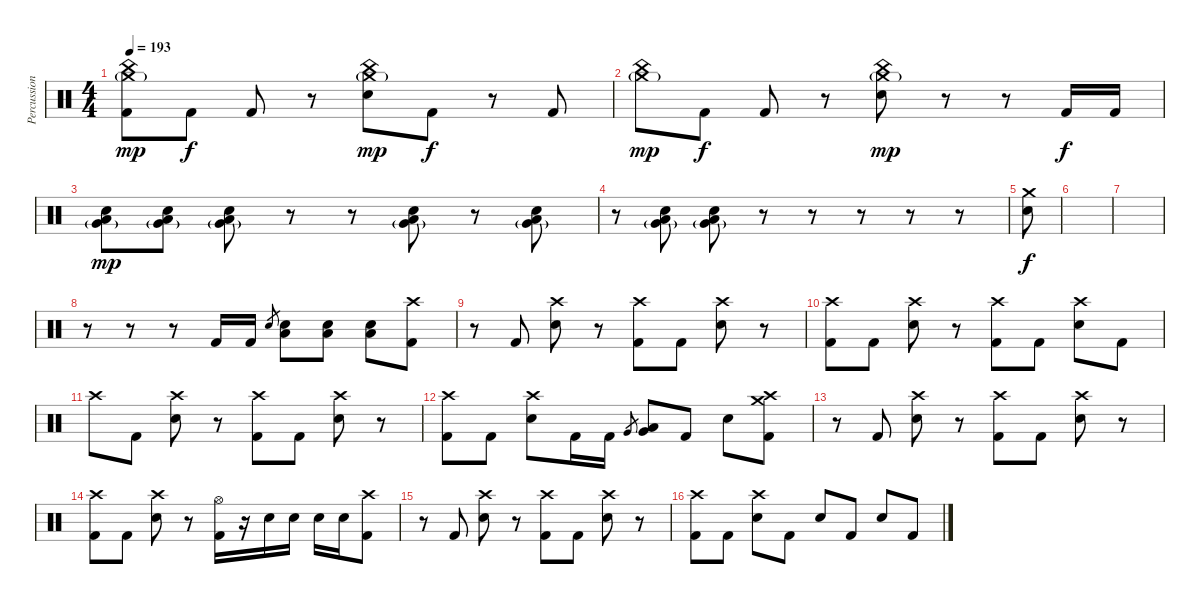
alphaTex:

\track ("Percussion" "Percussion") {instrument percussion}
\staff {score}
\articulation defaults
\ts (4 4)
\tempo 193
\clef neutral
\ks c
("Crash medium (hit)"{g} "China (hit)" "Kick (hit) 2").8{dy mp} "Kick (hit) 2".8{dy f} "Kick (hit) 2".8 r.8 ("Crash medium (hit)"{g} "China (hit)" "Snare (hit) 2").8{dy mp} "Kick (hit) 2".8{dy f} r.8 "Kick (hit) 2".8 |
("Crash medium (hit)"{g} "China (hit)").8{dy mp} "Kick (hit) 2".8{dy f} "Kick (hit) 2".8 r.8 ("Crash medium (hit)"{g} "China (hit)" "Snare (hit) 2").8{dy mp} r.8 r.8 "Kick (hit) 2".16{dy f} "Kick (hit) 2".16 |
("Very Low Tom (hit)"{g} "Low Floor Tom (hit)" "Snare (hit) 2").8{dy mp} ("Very Low Tom (hit)"{g} "Low Floor Tom (hit)" "Snare (hit) 2").8 ("Very Low Tom (hit)"{g} "Low Floor Tom (hit)" "Snare (hit) 2").8 r.8 r.8 ("Very Low Tom (hit)"{g} "Low Floor Tom (hit)" "Snare (hit) 2").8 r.8 ("Very Low Tom (hit)"{g} "Low Floor Tom (hit)" "Snare (hit) 2").8 |
r.8 ("Very Low Tom (hit)"{g} "Low Floor Tom (hit)" "Snare (hit) 2").8 ("Very Low Tom (hit)"{g} "Low Floor Tom (hit)" "Snare (hit) 2").8 r.8 r.8 r.8 r.8 r.8 |
("Crash medium (hit)" "Snare (hit) 2").8{dy f} |
|
|
r.8 r.8 r.8 "Kick (hit) 2".16 "Kick (hit) 2".16 "Snare (hit) 2".8{gr} ("Low Floor Tom (hit)" "Snare (hit) 2").8 ("Low Floor Tom (hit)" "Snare (hit) 2").8 ("Low Floor Tom (hit)" "Snare (hit) 2").8 ("Crash high (hit)" "Kick (hit) 2").8 |
r.8 "Kick (hit) 2".8 ("Crash high (hit)" "Snare (hit) 2").8 r.8 ("Crash high (hit)" "Kick (hit) 2").8 "Kick (hit) 2".8 ("Crash high (hit)" "Snare (hit) 2").8 r.8 |
("Crash high (hit)" "Kick (hit) 2").8 "Kick (hit) 2".8 ("Crash high (hit)" "Snare (hit) 2").8 r.8 ("Crash high (hit)" "Kick (hit) 2").8 "Kick (hit) 2".8 ("Crash high (hit)" "Snare (hit) 2").8 "Kick (hit) 2".8 |
"Crash high (hit)".8 "Kick (hit) 2".8 ("Crash high (hit)" "Snare (hit) 2").8 r.8 ("Crash high (hit)" "Kick (hit) 2").8 "Kick (hit) 2".8 ("Crash high (hit)" "Snare (hit) 2").8 r.8 |
("Crash high (hit)" "Kick (hit) 2").8 "Kick (hit) 2".8 ("Crash high (hit)" "Snare (hit) 2").8 "Kick (hit) 2".16 "Kick (hit) 2".16 "Very Low Tom (hit)".8{gr} ("Low Floor Tom (hit)" "Very Low Tom (hit)").8 "Kick (hit) 2".8 "Snare (hit) 2".8 ("Crash high (hit)" "Crash medium (hit)" "Kick (hit) 2").8 |
r.8 "Kick (hit) 2".8 ("Crash high (hit)" "Snare (hit) 2").8 r.8 ("Crash high (hit)" "Kick (hit) 2").8 "Kick (hit) 2".8 ("Crash high (hit)" "Snare (hit) 2").8 r.8 |
("Crash high (hit)" "Kick (hit) 2").8 "Kick (hit) 2".8 ("Crash high (hit)" "Snare (hit) 2").8 r.8 ("Hi-Hat (open)" "Kick (hit) 2").16 r.16 "Snare (hit) 2".16 "Snare (hit) 2".16 "Snare (hit) 2".16 "Snare (hit) 2".16 ("Crash high (hit)" "Kick (hit) 2").8 |
r.8 "Kick (hit) 2".8 ("Crash high (hit)" "Snare (hit) 2").8 r.8 ("Crash high (hit)" "Kick (hit) 2").8 "Kick (hit) 2".8 ("Crash high (hit)" "Snare (hit) 2").8 r.8 |
("Crash high (hit)" "Kick (hit) 2").8 "Kick (hit) 2".8 ("Crash high (hit)" "Snare (hit) 2").8 "Kick (hit) 2".8 "Snare (hit) 2".8 "Kick (hit) 2".8 "Snare (hit) 2".8 "Kick (hit) 2".8
